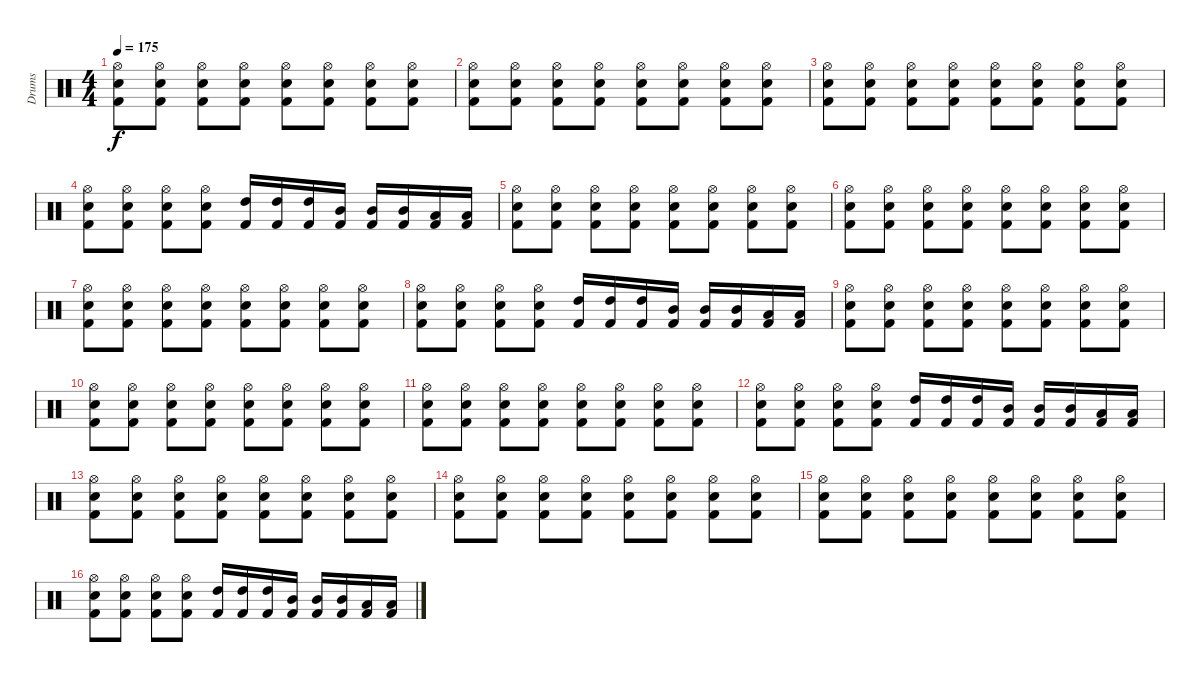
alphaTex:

\track ("Drums" "Drums") {instrument percussion}
\staff {score}
\articulation defaults
\ts (4 4)
\tempo 175
\clef neutral
\ks c
("Hi-Hat (open)" "Snare (hit) 2" "Kick (hit) 2").8{dy f} ("Hi-Hat (open)" "Snare (hit) 2" "Kick (hit) 2").8 ("Hi-Hat (open)" "Snare (hit) 2" "Kick (hit) 2").8 ("Hi-Hat (open)" "Snare (hit) 2" "Kick (hit) 2").8 ("Hi-Hat (open)" "Snare (hit) 2" "Kick (hit) 2").8 ("Hi-Hat (open)" "Snare (hit) 2" "Kick (hit) 2").8 ("Hi-Hat (open)" "Snare (hit) 2" "Kick (hit) 2").8 ("Hi-Hat (open)" "Snare (hit) 2" "Kick (hit) 2").8 |
("Hi-Hat (open)" "Snare (hit) 2" "Kick (hit) 2").8 ("Hi-Hat (open)" "Snare (hit) 2" "Kick (hit) 2").8 ("Hi-Hat (open)" "Snare (hit) 2" "Kick (hit) 2").8 ("Hi-Hat (open)" "Snare (hit) 2" "Kick (hit) 2").8 ("Hi-Hat (open)" "Snare (hit) 2" "Kick (hit) 2").8 ("Hi-Hat (open)" "Snare (hit) 2" "Kick (hit) 2").8 ("Hi-Hat (open)" "Snare (hit) 2" "Kick (hit) 2").8 ("Hi-Hat (open)" "Snare (hit) 2" "Kick (hit) 2").8 |
("Hi-Hat (open)" "Snare (hit) 2" "Kick (hit) 2").8 ("Hi-Hat (open)" "Snare (hit) 2" "Kick (hit) 2").8 ("Hi-Hat (open)" "Snare (hit) 2" "Kick (hit) 2").8 ("Hi-Hat (open)" "Snare (hit) 2" "Kick (hit) 2").8 ("Hi-Hat (open)" "Snare (hit) 2" "Kick (hit) 2").8 ("Hi-Hat (open)" "Snare (hit) 2" "Kick (hit) 2").8 ("Hi-Hat (open)" "Snare (hit) 2" "Kick (hit) 2").8 ("Hi-Hat (open)" "Snare (hit) 2" "Kick (hit) 2").8 |
("Hi-Hat (open)" "Snare (hit) 2" "Kick (hit) 2").8 ("Hi-Hat (open)" "Snare (hit) 2" "Kick (hit) 2").8 ("Hi-Hat (open)" "Snare (hit) 2" "Kick (hit) 2").8 ("Hi-Hat (open)" "Snare (hit) 2" "Kick (hit) 2").8 ("High Tom (hit)" "Kick (hit) 2").16 ("High Tom (hit)" "Kick (hit) 2").16 ("High Tom (hit)" "Kick (hit) 2").16 ("Mid Tom (hit)" "Kick (hit) 2").16 ("Mid Tom (hit)" "Kick (hit) 2").16 ("Mid Tom (hit)" "Kick (hit) 2").16 ("Low Tom (hit)" "Kick (hit) 2").16 ("Low Tom (hit)" "Kick (hit) 2").16 |
("Hi-Hat (open)" "Snare (hit) 2" "Kick (hit) 2").8 ("Hi-Hat (open)" "Snare (hit) 2" "Kick (hit) 2").8 ("Hi-Hat (open)" "Snare (hit) 2" "Kick (hit) 2").8 ("Hi-Hat (open)" "Snare (hit) 2" "Kick (hit) 2").8 ("Hi-Hat (open)" "Snare (hit) 2" "Kick (hit) 2").8 ("Hi-Hat (open)" "Snare (hit) 2" "Kick (hit) 2").8 ("Hi-Hat (open)" "Snare (hit) 2" "Kick (hit) 2").8 ("Hi-Hat (open)" "Snare (hit) 2" "Kick (hit) 2").8 |
("Hi-Hat (open)" "Snare (hit) 2" "Kick (hit) 2").8 ("Hi-Hat (open)" "Snare (hit) 2" "Kick (hit) 2").8 ("Hi-Hat (open)" "Snare (hit) 2" "Kick (hit) 2").8 ("Hi-Hat (open)" "Snare (hit) 2" "Kick (hit) 2").8 ("Hi-Hat (open)" "Snare (hit) 2" "Kick (hit) 2").8 ("Hi-Hat (open)" "Snare (hit) 2" "Kick (hit) 2").8 ("Hi-Hat (open)" "Snare (hit) 2" "Kick (hit) 2").8 ("Hi-Hat (open)" "Snare (hit) 2" "Kick (hit) 2").8 |
("Hi-Hat (open)" "Snare (hit) 2" "Kick (hit) 2").8 ("Hi-Hat (open)" "Snare (hit) 2" "Kick (hit) 2").8 ("Hi-Hat (open)" "Snare (hit) 2" "Kick (hit) 2").8 ("Hi-Hat (open)" "Snare (hit) 2" "Kick (hit) 2").8 ("Hi-Hat (open)" "Snare (hit) 2" "Kick (hit) 2").8 ("Hi-Hat (open)" "Snare (hit) 2" "Kick (hit) 2").8 ("Hi-Hat (open)" "Snare (hit) 2" "Kick (hit) 2").8 ("Hi-Hat (open)" "Snare (hit) 2" "Kick (hit) 2").8 |
("Hi-Hat (open)" "Snare (hit) 2" "Kick (hit) 2").8 ("Hi-Hat (open)" "Snare (hit) 2" "Kick (hit) 2").8 ("Hi-Hat (open)" "Snare (hit) 2" "Kick (hit) 2").8 ("Hi-Hat (open)" "Snare (hit) 2" "Kick (hit) 2").8 ("High Tom (hit)" "Kick (hit) 2").16 ("High Tom (hit)" "Kick (hit) 2").16 ("High Tom (hit)" "Kick (hit) 2").16 ("Mid Tom (hit)" "Kick (hit) 2").16 ("Mid Tom (hit)" "Kick (hit) 2").16 ("Mid Tom (hit)" "Kick (hit) 2").16 ("Low Tom (hit)" "Kick (hit) 2").16 ("Low Tom (hit)" "Kick (hit) 2").16 |
("Hi-Hat (open)" "Snare (hit) 2" "Kick (hit) 2").8 ("Hi-Hat (open)" "Snare (hit) 2" "Kick (hit) 2").8 ("Hi-Hat (open)" "Snare (hit) 2" "Kick (hit) 2").8 ("Hi-Hat (open)" "Snare (hit) 2" "Kick (hit) 2").8 ("Hi-Hat (open)" "Snare (hit) 2" "Kick (hit) 2").8 ("Hi-Hat (open)" "Snare (hit) 2" "Kick (hit) 2").8 ("Hi-Hat (open)" "Snare (hit) 2" "Kick (hit) 2").8 ("Hi-Hat (open)" "Snare (hit) 2" "Kick (hit) 2").8 |
("Hi-Hat (open)" "Snare (hit) 2" "Kick (hit) 2").8 ("Hi-Hat (open)" "Snare (hit) 2" "Kick (hit) 2").8 ("Hi-Hat (open)" "Snare (hit) 2" "Kick (hit) 2").8 ("Hi-Hat (open)" "Snare (hit) 2" "Kick (hit) 2").8 ("Hi-Hat (open)" "Snare (hit) 2" "Kick (hit) 2").8 ("Hi-Hat (open)" "Snare (hit) 2" "Kick (hit) 2").8 ("Hi-Hat (open)" "Snare (hit) 2" "Kick (hit) 2").8 ("Hi-Hat (open)" "Snare (hit) 2" "Kick (hit) 2").8 |
("Hi-Hat (open)" "Snare (hit) 2" "Kick (hit) 2").8 ("Hi-Hat (open)" "Snare (hit) 2" "Kick (hit) 2").8 ("Hi-Hat (open)" "Snare (hit) 2" "Kick (hit) 2").8 ("Hi-Hat (open)" "Snare (hit) 2" "Kick (hit) 2").8 ("Hi-Hat (open)" "Snare (hit) 2" "Kick (hit) 2").8 ("Hi-Hat (open)" "Snare (hit) 2" "Kick (hit) 2").8 ("Hi-Hat (open)" "Snare (hit) 2" "Kick (hit) 2").8 ("Hi-Hat (open)" "Snare (hit) 2" "Kick (hit) 2").8 |
("Hi-Hat (open)" "Snare (hit) 2" "Kick (hit) 2").8 ("Hi-Hat (open)" "Snare (hit) 2" "Kick (hit) 2").8 ("Hi-Hat (open)" "Snare (hit) 2" "Kick (hit) 2").8 ("Hi-Hat (open)" "Snare (hit) 2" "Kick (hit) 2").8 ("High Tom (hit)" "Kick (hit) 2").16 ("High Tom (hit)" "Kick (hit) 2").16 ("High Tom (hit)" "Kick (hit) 2").16 ("Mid Tom (hit)" "Kick (hit) 2").16 ("Mid Tom (hit)" "Kick (hit) 2").16 ("Mid Tom (hit)" "Kick (hit) 2").16 ("Low Tom (hit)" "Kick (hit) 2").16 ("Low Tom (hit)" "Kick (hit) 2").16 |
("Hi-Hat (open)" "Snare (hit) 2" "Kick (hit) 2").8 ("Hi-Hat (open)" "Snare (hit) 2" "Kick (hit) 2").8 ("Hi-Hat (open)" "Snare (hit) 2" "Kick (hit) 2").8 ("Hi-Hat (open)" "Snare (hit) 2" "Kick (hit) 2").8 ("Hi-Hat (open)" "Snare (hit) 2" "Kick (hit) 2").8 ("Hi-Hat (open)" "Snare (hit) 2" "Kick (hit) 2").8 ("Hi-Hat (open)" "Snare (hit) 2" "Kick (hit) 2").8 ("Hi-Hat (open)" "Snare (hit) 2" "Kick (hit) 2").8 |
("Hi-Hat (open)" "Snare (hit) 2" "Kick (hit) 2").8 ("Hi-Hat (open)" "Snare (hit) 2" "Kick (hit) 2").8 ("Hi-Hat (open)" "Snare (hit) 2" "Kick (hit) 2").8 ("Hi-Hat (open)" "Snare (hit) 2" "Kick (hit) 2").8 ("Hi-Hat (open)" "Snare (hit) 2" "Kick (hit) 2").8 ("Hi-Hat (open)" "Snare (hit) 2" "Kick (hit) 2").8 ("Hi-Hat (open)" "Snare (hit) 2" "Kick (hit) 2").8 ("Hi-Hat (open)" "Snare (hit) 2" "Kick (hit) 2").8 |
("Hi-Hat (open)" "Snare (hit) 2" "Kick (hit) 2").8 ("Hi-Hat (open)" "Snare (hit) 2" "Kick (hit) 2").8 ("Hi-Hat (open)" "Snare (hit) 2" "Kick (hit) 2").8 ("Hi-Hat (open)" "Snare (hit) 2" "Kick (hit) 2").8 ("Hi-Hat (open)" "Snare (hit) 2" "Kick (hit) 2").8 ("Hi-Hat (open)" "Snare (hit) 2" "Kick (hit) 2").8 ("Hi-Hat (open)" "Snare (hit) 2" "Kick (hit) 2").8 ("Hi-Hat (open)" "Snare (hit) 2" "Kick (hit) 2").8 |
("Hi-Hat (open)" "Snare (hit) 2" "Kick (hit) 2").8 ("Hi-Hat (open)" "Snare (hit) 2" "Kick (hit) 2").8 ("Hi-Hat (open)" "Snare (hit) 2" "Kick (hit) 2").8 ("Hi-Hat (open)" "Snare (hit) 2" "Kick (hit) 2").8 ("High Tom (hit)" "Kick (hit) 2").16 ("High Tom (hit)" "Kick (hit) 2").16 ("High Tom (hit)" "Kick (hit) 2").16 ("Mid Tom (hit)" "Kick (hit) 2").16 ("Mid Tom (hit)" "Kick (hit) 2").16 ("Mid Tom (hit)" "Kick (hit) 2").16 ("Low Tom (hit)" "Kick (hit) 2").16 ("Low Tom (hit)" "Kick (hit) 2").16
